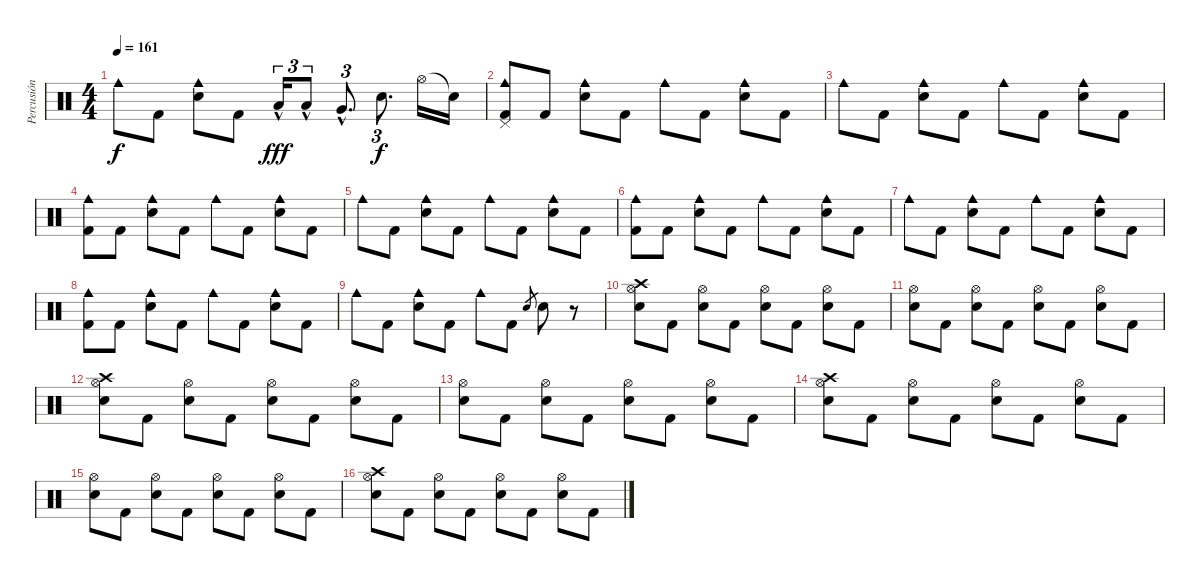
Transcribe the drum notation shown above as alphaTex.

\track ("Percusión" "Percusión") {instrument percussion}
\staff {score}
\articulation defaults
\ts (4 4)
\tempo 161
\clef neutral
\ks c "Cowbell medium (hit)".8{dy f} "Kick (hit) 2".8
("Cowbell medium (hit)" "Snare (hit) 2").8 "Kick (hit) 2".8 "Low Tom (hit)"{hac}.16{tu (3 2) dy fff} "Low Tom (hit)"{hac}.8{tu (3 2)} "Very Low Tom (hit)"{hac}.8{d tu (3 2)} "Snare (hit) 2".8{d tu (3 2) dy f} "Hi-Hat (open)".16 "Snare (hit)"{t}.16 |
("Cowbell medium (hit)" "Pedal Hi-Hat (hit)" "Kick (hit) 2").8 "Kick (hit) 2".8 ("Cowbell medium (hit)" "Snare (hit) 2").8 "Kick (hit) 2".8 "Cowbell medium (hit)".8 "Kick (hit) 2".8 ("Cowbell medium (hit)" "Snare (hit) 2").8 "Kick (hit) 2".8 |
"Cowbell medium (hit)".8 "Kick (hit) 2".8 ("Cowbell medium (hit)" "Snare (hit) 2").8 "Kick (hit) 2".8 "Cowbell medium (hit)".8 "Kick (hit) 2".8 ("Cowbell medium (hit)" "Snare (hit) 2").8 "Kick (hit) 2".8 |
("Cowbell medium (hit)" "Kick (hit) 2").8 "Kick (hit) 2".8 ("Cowbell medium (hit)" "Snare (hit) 2").8 "Kick (hit) 2".8 "Cowbell medium (hit)".8 "Kick (hit) 2".8 ("Cowbell medium (hit)" "Snare (hit) 2").8 "Kick (hit) 2".8 |
"Cowbell medium (hit)".8 "Kick (hit) 2".8 ("Cowbell medium (hit)" "Snare (hit) 2").8 "Kick (hit) 2".8 "Cowbell medium (hit)".8 "Kick (hit) 2".8 ("Cowbell medium (hit)" "Snare (hit) 2").8 "Kick (hit) 2".8 |
("Cowbell medium (hit)" "Kick (hit) 2").8 "Kick (hit) 2".8 ("Cowbell medium (hit)" "Snare (hit) 2").8 "Kick (hit) 2".8 "Cowbell medium (hit)".8 "Kick (hit) 2".8 ("Cowbell medium (hit)" "Snare (hit) 2").8 "Kick (hit) 2".8 |
"Cowbell medium (hit)".8 "Kick (hit) 2".8 ("Cowbell medium (hit)" "Snare (hit) 2").8 "Kick (hit) 2".8 "Cowbell medium (hit)".8 "Kick (hit) 2".8 ("Cowbell medium (hit)" "Snare (hit) 2").8 "Kick (hit) 2".8 |
("Cowbell medium (hit)" "Kick (hit) 2").8 "Kick (hit) 2".8 ("Cowbell medium (hit)" "Snare (hit) 2").8 "Kick (hit) 2".8 "Cowbell medium (hit)".8 "Kick (hit) 2".8 ("Cowbell medium (hit)" "Snare (hit) 2").8 "Kick (hit) 2".8 |
"Cowbell medium (hit)".8 "Kick (hit) 2".8 ("Cowbell medium (hit)" "Snare (hit) 2").8 "Kick (hit) 2".8 "Cowbell medium (hit)".8 "Kick (hit) 2".8 "Snare (hit) 2".8{gr} "Snare (hit) 2".8 r.8 |
("Crash high (hit)" "Hi-Hat (open)" "Snare (hit) 2").8 "Kick (hit) 2".8 ("Hi-Hat (open)" "Snare (hit) 2").8 "Kick (hit) 2".8 ("Hi-Hat (open)" "Snare (hit) 2").8 "Kick (hit) 2".8 ("Hi-Hat (open)" "Snare (hit) 2").8 "Kick (hit) 2".8 |
("Hi-Hat (open)" "Snare (hit) 2").8 "Kick (hit) 2".8 ("Hi-Hat (open)" "Snare (hit) 2").8 "Kick (hit) 2".8 ("Hi-Hat (open)" "Snare (hit) 2").8 "Kick (hit) 2".8 ("Hi-Hat (open)" "Snare (hit) 2").8 "Kick (hit) 2".8 |
("Crash high (hit)" "Hi-Hat (open)" "Snare (hit) 2").8 "Kick (hit) 2".8 ("Hi-Hat (open)" "Snare (hit) 2").8 "Kick (hit) 2".8 ("Hi-Hat (open)" "Snare (hit) 2").8 "Kick (hit) 2".8 ("Hi-Hat (open)" "Snare (hit) 2").8 "Kick (hit) 2".8 |
("Hi-Hat (open)" "Snare (hit) 2").8 "Kick (hit) 2".8 ("Hi-Hat (open)" "Snare (hit) 2").8 "Kick (hit) 2".8 ("Hi-Hat (open)" "Snare (hit) 2").8 "Kick (hit) 2".8 ("Hi-Hat (open)" "Snare (hit) 2").8 "Kick (hit) 2".8 |
("Crash high (hit)" "Hi-Hat (open)" "Snare (hit) 2").8 "Kick (hit) 2".8 ("Hi-Hat (open)" "Snare (hit) 2").8 "Kick (hit) 2".8 ("Hi-Hat (open)" "Snare (hit) 2").8 "Kick (hit) 2".8 ("Hi-Hat (open)" "Snare (hit) 2").8 "Kick (hit) 2".8 |
("Hi-Hat (open)" "Snare (hit) 2").8 "Kick (hit) 2".8 ("Hi-Hat (open)" "Snare (hit) 2").8 "Kick (hit) 2".8 ("Hi-Hat (open)" "Snare (hit) 2").8 "Kick (hit) 2".8 ("Hi-Hat (open)" "Snare (hit) 2").8 "Kick (hit) 2".8 |
("Crash high (hit)" "Hi-Hat (open)" "Snare (hit) 2").8 "Kick (hit) 2".8 ("Hi-Hat (open)" "Snare (hit) 2").8 "Kick (hit) 2".8 ("Hi-Hat (open)" "Snare (hit) 2").8 "Kick (hit) 2".8 ("Hi-Hat (open)" "Snare (hit) 2").8 "Kick (hit) 2".8
